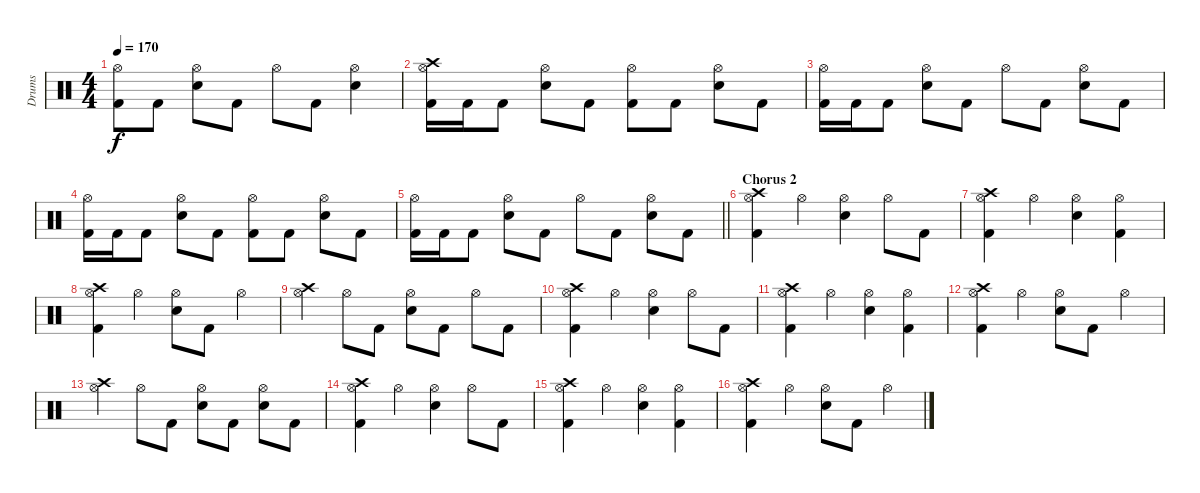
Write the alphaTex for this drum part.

\track ("Drums" "Drums") {instrument percussion}
\staff {score}
\articulation defaults
\ts (4 4)
\tempo 170
\clef neutral
\ks c
("Hi-Hat (open)" "Kick (hit) 2").8{dy f} "Kick (hit) 2".8 ("Hi-Hat (open)" "Electric Snare (hit)").8 "Kick (hit) 2".8 "Hi-Hat (open)".8 "Kick (hit) 2".8 ("Hi-Hat (open)" "Electric Snare (hit)").4 |
("Crash high (hit)" "Hi-Hat (open)" "Kick (hit) 2").16 "Kick (hit) 2".16 "Kick (hit) 2".8 ("Hi-Hat (open)" "Electric Snare (hit)").8 "Kick (hit) 2".8 ("Hi-Hat (open)" "Kick (hit) 2").8 "Kick (hit) 2".8 ("Hi-Hat (open)" "Electric Snare (hit)").8 "Kick (hit) 2".8 |
("Hi-Hat (open)" "Kick (hit) 2").16 "Kick (hit) 2".16 "Kick (hit) 2".8 ("Hi-Hat (open)" "Electric Snare (hit)").8 "Kick (hit) 2".8 "Hi-Hat (open)".8 "Kick (hit) 2".8 ("Hi-Hat (open)" "Electric Snare (hit)").8 "Kick (hit) 2".8 |
("Hi-Hat (open)" "Kick (hit) 2").16 "Kick (hit) 2".16 "Kick (hit) 2".8 ("Hi-Hat (open)" "Electric Snare (hit)").8 "Kick (hit) 2".8 ("Hi-Hat (open)" "Kick (hit) 2").8 "Kick (hit) 2".8 ("Hi-Hat (open)" "Electric Snare (hit)").8 "Kick (hit) 2".8 |
\barLineRight lightlight
("Hi-Hat (open)" "Kick (hit) 2").16 "Kick (hit) 2".16 "Kick (hit) 2".8 ("Hi-Hat (open)" "Electric Snare (hit)").8 "Kick (hit) 2".8 "Hi-Hat (open)".8 "Kick (hit) 2".8 ("Hi-Hat (open)" "Electric Snare (hit)").8 "Kick (hit) 2".8 |
\section ("" "Chorus 2")
("Crash high (hit)" "Hi-Hat (open)" "Kick (hit) 2").4 "Hi-Hat (open)".4 ("Hi-Hat (open)" "Electric Snare (hit)").4 "Hi-Hat (open)".8 "Kick (hit) 2".8 |
("Crash high (hit)" "Hi-Hat (open)" "Kick (hit) 2").4 "Hi-Hat (open)".4 ("Hi-Hat (open)" "Electric Snare (hit)").4 ("Hi-Hat (open)" "Kick (hit) 2").4 |
("Crash high (hit)" "Hi-Hat (open)" "Kick (hit) 2").4 "Hi-Hat (open)".4 ("Hi-Hat (open)" "Electric Snare (hit)").8 "Kick (hit) 2".8 "Hi-Hat (open)".4 |
("Crash high (hit)" "Hi-Hat (open)").4 "Hi-Hat (open)".8 "Kick (hit) 2".8 ("Hi-Hat (open)" "Electric Snare (hit)").8 "Kick (hit) 2".8 "Hi-Hat (open)".8 "Kick (hit) 2".8 |
("Crash high (hit)" "Hi-Hat (open)" "Kick (hit) 2").4 "Hi-Hat (open)".4 ("Hi-Hat (open)" "Electric Snare (hit)").4 "Hi-Hat (open)".8 "Kick (hit) 2".8 |
("Crash high (hit)" "Hi-Hat (open)" "Kick (hit) 2").4 "Hi-Hat (open)".4 ("Hi-Hat (open)" "Electric Snare (hit)").4 ("Hi-Hat (open)" "Kick (hit) 2").4 |
("Crash high (hit)" "Hi-Hat (open)" "Kick (hit) 2").4 "Hi-Hat (open)".4 ("Hi-Hat (open)" "Electric Snare (hit)").8 "Kick (hit) 2".8 "Hi-Hat (open)".4 |
("Crash high (hit)" "Hi-Hat (open)").4 "Hi-Hat (open)".8 "Kick (hit) 2".8 ("Hi-Hat (open)" "Electric Snare (hit)").8 "Kick (hit) 2".8 ("Hi-Hat (open)" "Electric Snare (hit)").8 "Kick (hit) 2".8 |
("Crash high (hit)" "Hi-Hat (open)" "Kick (hit) 2").4 "Hi-Hat (open)".4 ("Hi-Hat (open)" "Electric Snare (hit)").4 "Hi-Hat (open)".8 "Kick (hit) 2".8 |
("Crash high (hit)" "Hi-Hat (open)" "Kick (hit) 2").4 "Hi-Hat (open)".4 ("Hi-Hat (open)" "Electric Snare (hit)").4 ("Hi-Hat (open)" "Kick (hit) 2").4 |
("Crash high (hit)" "Hi-Hat (open)" "Kick (hit) 2").4 "Hi-Hat (open)".4 ("Hi-Hat (open)" "Electric Snare (hit)").8 "Kick (hit) 2".8 "Hi-Hat (open)".4
